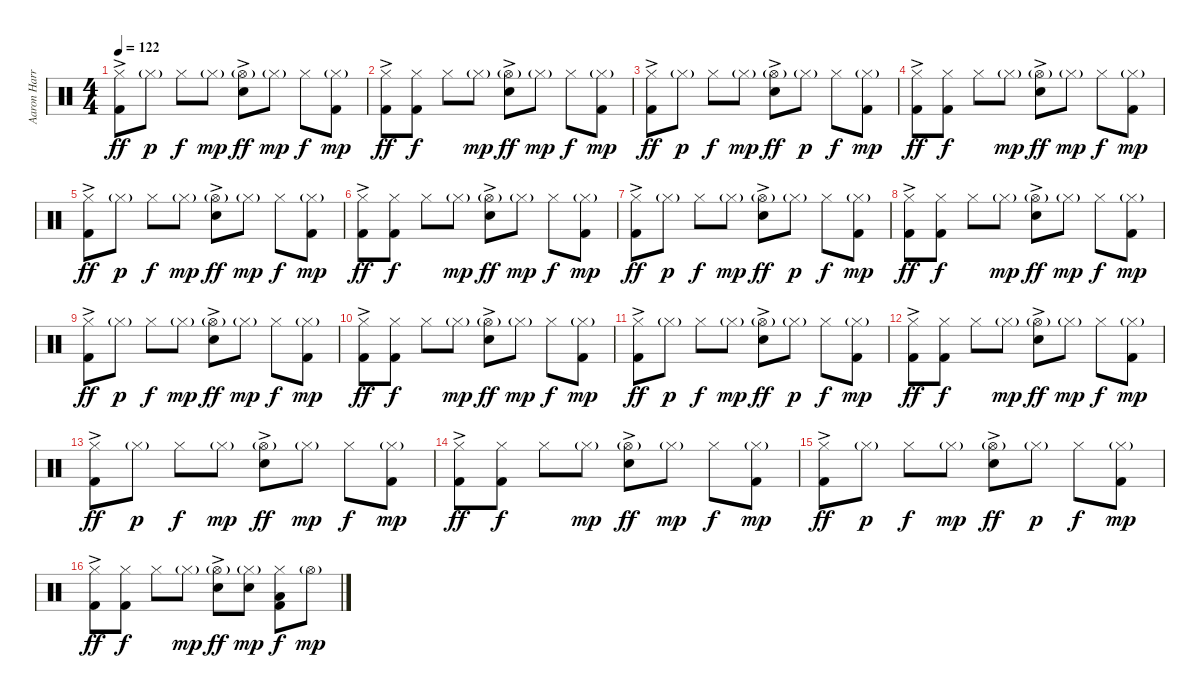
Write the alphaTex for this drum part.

\track ("Aaron Harris" "Aaron Harr") {instrument percussion}
\staff {score}
\articulation defaults
\ts (4 4)
\tempo 122
\clef neutral
\ks c
("Hi-Hat (closed)" "Kick (hit) 2"{ac}).8{dy ff} "Hi-Hat (closed)"{g}.8{dy p} "Hi-Hat (closed)".8{dy f} "Hi-Hat (closed)"{g}.8{dy mp} ("Hi-Hat (open)"{g} "Snare (hit) 2"{ac}).8{dy ff} "Hi-Hat (closed)"{g}.8{dy mp} "Hi-Hat (closed)".8{dy f} ("Hi-Hat (closed)"{g} "Kick (hit) 2").8{dy mp} |
("Hi-Hat (closed)" "Kick (hit) 2"{ac}).8{dy ff} ("Hi-Hat (closed)" "Kick (hit) 2").8{dy f} "Hi-Hat (closed)".8 "Hi-Hat (closed)"{g}.8{dy mp} ("Hi-Hat (open)"{g} "Snare (hit) 2"{ac}).8{dy ff} "Hi-Hat (closed)"{g}.8{dy mp} "Hi-Hat (closed)".8{dy f} ("Hi-Hat (closed)"{g} "Kick (hit) 2").8{dy mp} |
("Hi-Hat (closed)" "Kick (hit) 2"{ac}).8{dy ff} "Hi-Hat (closed)"{g}.8{dy p} "Hi-Hat (closed)".8{dy f} "Hi-Hat (closed)"{g}.8{dy mp} ("Hi-Hat (open)"{g} "Snare (hit) 2"{ac}).8{dy ff} "Hi-Hat (closed)"{g}.8{dy p} "Hi-Hat (closed)".8{dy f} ("Hi-Hat (closed)"{g} "Kick (hit) 2").8{dy mp} |
("Hi-Hat (closed)" "Kick (hit) 2"{ac}).8{dy ff} ("Hi-Hat (closed)" "Kick (hit) 2").8{dy f} "Hi-Hat (closed)".8 "Hi-Hat (closed)"{g}.8{dy mp} ("Hi-Hat (open)"{g} "Snare (hit) 2"{ac}).8{dy ff} "Hi-Hat (closed)"{g}.8{dy mp} "Hi-Hat (closed)".8{dy f} ("Hi-Hat (closed)"{g} "Kick (hit) 2").8{dy mp} |
("Hi-Hat (closed)" "Kick (hit) 2"{ac}).8{dy ff} "Hi-Hat (closed)"{g}.8{dy p} "Hi-Hat (closed)".8{dy f} "Hi-Hat (closed)"{g}.8{dy mp} ("Hi-Hat (open)"{g} "Snare (hit) 2"{ac}).8{dy ff} "Hi-Hat (closed)"{g}.8{dy mp} "Hi-Hat (closed)".8{dy f} ("Hi-Hat (closed)"{g} "Kick (hit) 2").8{dy mp} |
("Hi-Hat (closed)" "Kick (hit) 2"{ac}).8{dy ff} ("Hi-Hat (closed)" "Kick (hit) 2").8{dy f} "Hi-Hat (closed)".8 "Hi-Hat (closed)"{g}.8{dy mp} ("Hi-Hat (open)"{g} "Snare (hit) 2"{ac}).8{dy ff} "Hi-Hat (closed)"{g}.8{dy mp} "Hi-Hat (closed)".8{dy f} ("Hi-Hat (closed)"{g} "Kick (hit) 2").8{dy mp} |
("Hi-Hat (closed)" "Kick (hit) 2"{ac}).8{dy ff} "Hi-Hat (closed)"{g}.8{dy p} "Hi-Hat (closed)".8{dy f} "Hi-Hat (closed)"{g}.8{dy mp} ("Hi-Hat (open)"{g} "Snare (hit) 2"{ac}).8{dy ff} "Hi-Hat (closed)"{g}.8{dy p} "Hi-Hat (closed)".8{dy f} ("Hi-Hat (closed)"{g} "Kick (hit) 2").8{dy mp} |
("Hi-Hat (closed)" "Kick (hit) 2"{ac}).8{dy ff} ("Hi-Hat (closed)" "Kick (hit) 2").8{dy f} "Hi-Hat (closed)".8 "Hi-Hat (closed)"{g}.8{dy mp} ("Hi-Hat (open)"{g} "Snare (hit) 2"{ac}).8{dy ff} "Hi-Hat (closed)"{g}.8{dy mp} "Hi-Hat (closed)".8{dy f} ("Hi-Hat (closed)"{g} "Kick (hit) 2").8{dy mp} |
("Hi-Hat (closed)" "Kick (hit) 2"{ac}).8{dy ff} "Hi-Hat (closed)"{g}.8{dy p} "Hi-Hat (closed)".8{dy f} "Hi-Hat (closed)"{g}.8{dy mp} ("Hi-Hat (open)"{g} "Snare (hit) 2"{ac}).8{dy ff} "Hi-Hat (closed)"{g}.8{dy mp} "Hi-Hat (closed)".8{dy f} ("Hi-Hat (closed)"{g} "Kick (hit) 2").8{dy mp} |
("Hi-Hat (closed)" "Kick (hit) 2"{ac}).8{dy ff} ("Hi-Hat (closed)" "Kick (hit) 2").8{dy f} "Hi-Hat (closed)".8 "Hi-Hat (closed)"{g}.8{dy mp} ("Hi-Hat (open)"{g} "Snare (hit) 2"{ac}).8{dy ff} "Hi-Hat (closed)"{g}.8{dy mp} "Hi-Hat (closed)".8{dy f} ("Hi-Hat (closed)"{g} "Kick (hit) 2").8{dy mp} |
("Hi-Hat (closed)" "Kick (hit) 2"{ac}).8{dy ff} "Hi-Hat (closed)"{g}.8{dy p} "Hi-Hat (closed)".8{dy f} "Hi-Hat (closed)"{g}.8{dy mp} ("Hi-Hat (open)"{g} "Snare (hit) 2"{ac}).8{dy ff} "Hi-Hat (closed)"{g}.8{dy p} "Hi-Hat (closed)".8{dy f} ("Hi-Hat (closed)"{g} "Kick (hit) 2").8{dy mp} |
("Hi-Hat (closed)" "Kick (hit) 2"{ac}).8{dy ff} ("Hi-Hat (closed)" "Kick (hit) 2").8{dy f} "Hi-Hat (closed)".8 "Hi-Hat (closed)"{g}.8{dy mp} ("Hi-Hat (open)"{g} "Snare (hit) 2"{ac}).8{dy ff} "Hi-Hat (closed)"{g}.8{dy mp} "Hi-Hat (closed)".8{dy f} ("Hi-Hat (closed)"{g} "Kick (hit) 2").8{dy mp} |
("Hi-Hat (closed)" "Kick (hit) 2"{ac}).8{dy ff} "Hi-Hat (closed)"{g}.8{dy p} "Hi-Hat (closed)".8{dy f} "Hi-Hat (closed)"{g}.8{dy mp} ("Hi-Hat (open)"{g} "Snare (hit) 2"{ac}).8{dy ff} "Hi-Hat (closed)"{g}.8{dy mp} "Hi-Hat (closed)".8{dy f} ("Hi-Hat (closed)"{g} "Kick (hit) 2").8{dy mp} |
("Hi-Hat (closed)" "Kick (hit) 2"{ac}).8{dy ff} ("Hi-Hat (closed)" "Kick (hit) 2").8{dy f} "Hi-Hat (closed)".8 "Hi-Hat (closed)"{g}.8{dy mp} ("Hi-Hat (open)"{g} "Snare (hit) 2"{ac}).8{dy ff} "Hi-Hat (closed)"{g}.8{dy mp} "Hi-Hat (closed)".8{dy f} ("Hi-Hat (closed)"{g} "Kick (hit) 2").8{dy mp} |
("Hi-Hat (closed)" "Kick (hit) 2"{ac}).8{dy ff} "Hi-Hat (closed)"{g}.8{dy p} "Hi-Hat (closed)".8{dy f} "Hi-Hat (closed)"{g}.8{dy mp} ("Hi-Hat (open)"{g} "Snare (hit) 2"{ac}).8{dy ff} "Hi-Hat (closed)"{g}.8{dy p} "Hi-Hat (closed)".8{dy f} ("Hi-Hat (closed)"{g} "Kick (hit) 2").8{dy mp} |
("Hi-Hat (closed)" "Kick (hit) 2"{ac}).8{dy ff} ("Hi-Hat (closed)" "Kick (hit) 2").8{dy f} "Hi-Hat (closed)".8 "Hi-Hat (closed)"{g}.8{dy mp} ("Hi-Hat (open)"{g} "Snare (hit) 2"{ac}).8{dy ff} ("Hi-Hat (closed)"{g} "Snare (hit) 2").8{dy mp} ("Hi-Hat (closed)" "Low Floor Tom (hit)" "Kick (hit) 2").8{dy f} "Hi-Hat (open)"{g}.8{dy mp}
